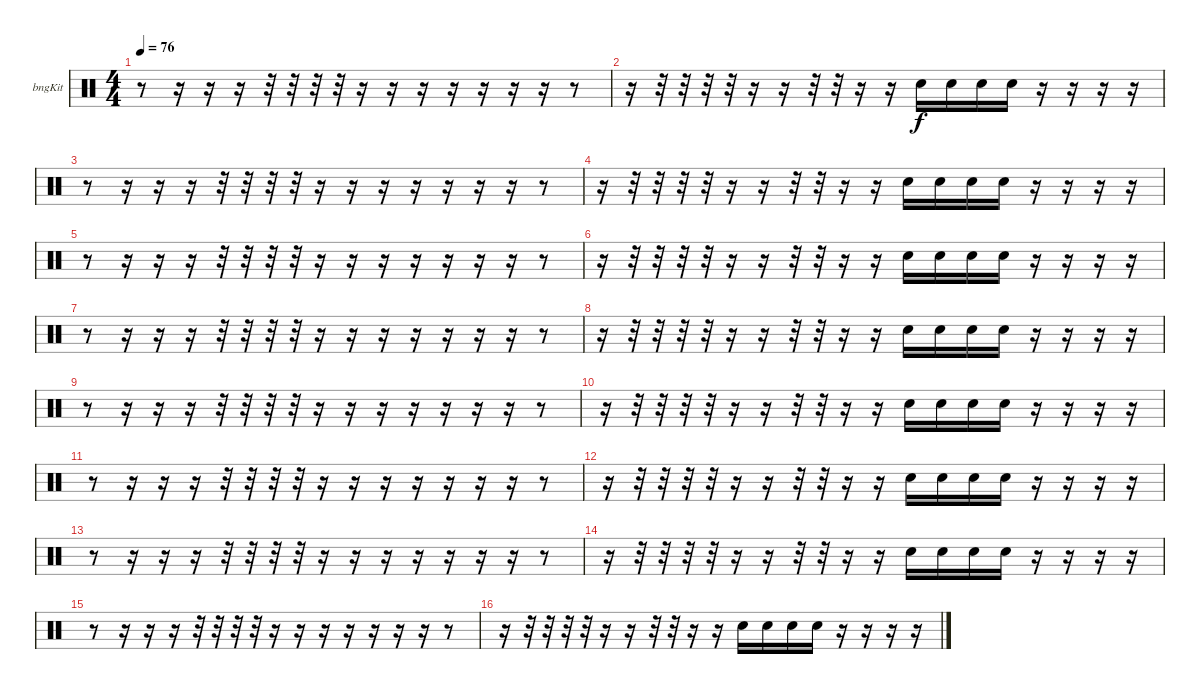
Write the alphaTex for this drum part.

\bracketExtendMode groupsimilarinstruments
\firstSystemTrackNameOrientation horizontal
\otherSystemsTrackNameOrientation horizontal
\track ("Bongos" "bngKit") {instrument percussion}
\staff {score}
\articulation defaults
\ts (4 4)
\tempo 76
\clef neutral
\ks c
r.8{dy f} r.16 r.16 r.16 r.32 r.32 r.32 r.32 r.16 r.16 r.16 r.16 r.16 r.16 r.16 r.8 |
r.16 r.32 r.32 r.32 r.32 r.16 r.16 r.32 r.32 r.16 r.16 "Snare (hit) 2".16 "Snare (hit) 2".16 "Snare (hit) 2".16 "Snare (hit) 2".16 r.16 r.16 r.16 r.16 |
r.8 r.16 r.16 r.16 r.32 r.32 r.32 r.32 r.16 r.16 r.16 r.16 r.16 r.16 r.16 r.8 |
r.16 r.32 r.32 r.32 r.32 r.16 r.16 r.32 r.32 r.16 r.16 "Snare (hit) 2".16 "Snare (hit) 2".16 "Snare (hit) 2".16 "Snare (hit) 2".16 r.16 r.16 r.16 r.16 |
r.8 r.16 r.16 r.16 r.32 r.32 r.32 r.32 r.16 r.16 r.16 r.16 r.16 r.16 r.16 r.8 |
r.16 r.32 r.32 r.32 r.32 r.16 r.16 r.32 r.32 r.16 r.16 "Snare (hit) 2".16 "Snare (hit) 2".16 "Snare (hit) 2".16 "Snare (hit) 2".16 r.16 r.16 r.16 r.16 |
r.8 r.16 r.16 r.16 r.32 r.32 r.32 r.32 r.16 r.16 r.16 r.16 r.16 r.16 r.16 r.8 |
r.16 r.32 r.32 r.32 r.32 r.16 r.16 r.32 r.32 r.16 r.16 "Snare (hit) 2".16 "Snare (hit) 2".16 "Snare (hit) 2".16 "Snare (hit) 2".16 r.16 r.16 r.16 r.16 |
r.8 r.16 r.16 r.16 r.32 r.32 r.32 r.32 r.16 r.16 r.16 r.16 r.16 r.16 r.16 r.8 |
r.16 r.32 r.32 r.32 r.32 r.16 r.16 r.32 r.32 r.16 r.16 "Snare (hit) 2".16 "Snare (hit) 2".16 "Snare (hit) 2".16 "Snare (hit) 2".16 r.16 r.16 r.16 r.16 |
r.8 r.16 r.16 r.16 r.32 r.32 r.32 r.32 r.16 r.16 r.16 r.16 r.16 r.16 r.16 r.8 |
r.16 r.32 r.32 r.32 r.32 r.16 r.16 r.32 r.32 r.16 r.16 "Snare (hit) 2".16 "Snare (hit) 2".16 "Snare (hit) 2".16 "Snare (hit) 2".16 r.16 r.16 r.16 r.16 |
r.8 r.16 r.16 r.16 r.32 r.32 r.32 r.32 r.16 r.16 r.16 r.16 r.16 r.16 r.16 r.8 |
r.16 r.32 r.32 r.32 r.32 r.16 r.16 r.32 r.32 r.16 r.16 "Snare (hit) 2".16 "Snare (hit) 2".16 "Snare (hit) 2".16 "Snare (hit) 2".16 r.16 r.16 r.16 r.16 |
r.8 r.16 r.16 r.16 r.32 r.32 r.32 r.32 r.16 r.16 r.16 r.16 r.16 r.16 r.16 r.8 |
r.16 r.32 r.32 r.32 r.32 r.16 r.16 r.32 r.32 r.16 r.16 "Snare (hit) 2".16 "Snare (hit) 2".16 "Snare (hit) 2".16 "Snare (hit) 2".16 r.16 r.16 r.16 r.16
